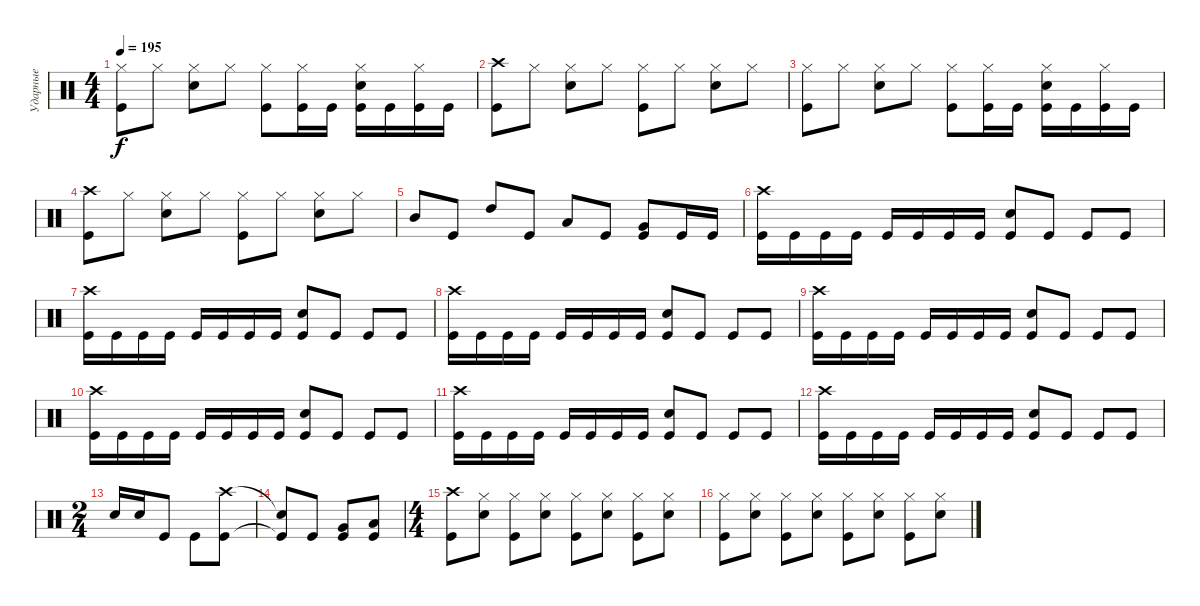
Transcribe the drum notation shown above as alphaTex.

\track ("Ударные" "Ударные") {instrument percussion}
\staff {score}
\articulation defaults
\ts (4 4)
\tempo 195
\clef neutral
\ks c
("Hi-Hat (closed)" "Kick (hit)").8{dy f} "Hi-Hat (closed)".8 ("Hi-Hat (closed)" "Electric Snare (hit)").8 "Hi-Hat (closed)".8 ("Hi-Hat (closed)" "Kick (hit)").8 ("Hi-Hat (closed)" "Kick (hit)").16 "Kick (hit)".16 ("Hi-Hat (closed)" "Electric Snare (hit)" "Kick (hit)").16 "Kick (hit)".16 ("Hi-Hat (closed)" "Kick (hit)").16 "Kick (hit)".16 |
("Crash high (hit)" "Kick (hit)").8 "Hi-Hat (closed)".8 ("Hi-Hat (closed)" "Electric Snare (hit)").8 "Hi-Hat (closed)".8 ("Hi-Hat (closed)" "Kick (hit)").8 "Hi-Hat (closed)".8 ("Hi-Hat (closed)" "Electric Snare (hit)").8 "Hi-Hat (closed)".8 |
("Hi-Hat (closed)" "Kick (hit)").8 "Hi-Hat (closed)".8 ("Hi-Hat (closed)" "Electric Snare (hit)").8 "Hi-Hat (closed)".8 ("Hi-Hat (closed)" "Kick (hit)").8 ("Hi-Hat (closed)" "Kick (hit)").16 "Kick (hit)".16 ("Hi-Hat (closed)" "Electric Snare (hit)" "Kick (hit)").16 "Kick (hit)".16 ("Hi-Hat (closed)" "Kick (hit)").16 "Kick (hit)".16 |
("Crash high (hit)" "Kick (hit)").8 "Hi-Hat (closed)".8 ("Hi-Hat (closed)" "Electric Snare (hit)").8 "Hi-Hat (closed)".8 ("Hi-Hat (closed)" "Kick (hit)").8 "Hi-Hat (closed)".8 ("Hi-Hat (closed)" "Electric Snare (hit)").8 "Hi-Hat (closed)".8 |
"Mid Tom (hit)".8 "Kick (hit)".8 "High Tom (hit)".8 "Kick (hit)".8 "Low Tom (hit)".8 "Kick (hit)".8 ("Very Low Tom (hit)" "Kick (hit)").8 "Kick (hit)".16 "Kick (hit)".16 |
("Crash high (hit)" "Kick (hit)").16 "Kick (hit)".16 "Kick (hit)".16 "Kick (hit)".16 "Kick (hit)".16 "Kick (hit)".16 "Kick (hit)".16 "Kick (hit)".16 ("Electric Snare (hit)" "Kick (hit)").8 "Kick (hit)".8 "Kick (hit)".8 "Kick (hit)".8 |
("Crash high (hit)" "Kick (hit)").16 "Kick (hit)".16 "Kick (hit)".16 "Kick (hit)".16 "Kick (hit)".16 "Kick (hit)".16 "Kick (hit)".16 "Kick (hit)".16 ("Electric Snare (hit)" "Kick (hit)").8 "Kick (hit)".8 "Kick (hit)".8 "Kick (hit)".8 |
("Crash high (hit)" "Kick (hit)").16 "Kick (hit)".16 "Kick (hit)".16 "Kick (hit)".16 "Kick (hit)".16 "Kick (hit)".16 "Kick (hit)".16 "Kick (hit)".16 ("Electric Snare (hit)" "Kick (hit)").8 "Kick (hit)".8 "Kick (hit)".8 "Kick (hit)".8 |
("Crash high (hit)" "Kick (hit)").16 "Kick (hit)".16 "Kick (hit)".16 "Kick (hit)".16 "Kick (hit)".16 "Kick (hit)".16 "Kick (hit)".16 "Kick (hit)".16 ("Electric Snare (hit)" "Kick (hit)").8 "Kick (hit)".8 "Kick (hit)".8 "Kick (hit)".8 |
("Crash high (hit)" "Kick (hit)").16 "Kick (hit)".16 "Kick (hit)".16 "Kick (hit)".16 "Kick (hit)".16 "Kick (hit)".16 "Kick (hit)".16 "Kick (hit)".16 ("Electric Snare (hit)" "Kick (hit)").8 "Kick (hit)".8 "Kick (hit)".8 "Kick (hit)".8 |
("Crash high (hit)" "Kick (hit)").16 "Kick (hit)".16 "Kick (hit)".16 "Kick (hit)".16 "Kick (hit)".16 "Kick (hit)".16 "Kick (hit)".16 "Kick (hit)".16 ("Electric Snare (hit)" "Kick (hit)").8 "Kick (hit)".8 "Kick (hit)".8 "Kick (hit)".8 |
("Crash high (hit)" "Kick (hit)").16 "Kick (hit)".16 "Kick (hit)".16 "Kick (hit)".16 "Kick (hit)".16 "Kick (hit)".16 "Kick (hit)".16 "Kick (hit)".16 ("Electric Snare (hit)" "Kick (hit)").8 "Kick (hit)".8 "Kick (hit)".8 "Kick (hit)".8 |
\ts (2 4)
"Electric Snare (hit)".16 "Electric Snare (hit)".16 "Kick (hit)".8 "Kick (hit)".8 ("Crash high (hit)" "Kick (hit)").8 |
("Snare (hit)"{t} "Kick (hit)"{t}).8 "Kick (hit)".8 ("Very Low Tom (hit)" "Kick (hit)").8 ("Low Tom (hit)" "Kick (hit)").8 |
\ts (4 4)
("Crash high (hit)" "Kick (hit)").8 ("Hi-Hat (closed)" "Electric Snare (hit)").8 ("Hi-Hat (closed)" "Kick (hit)").8 ("Hi-Hat (closed)" "Electric Snare (hit)").8 ("Hi-Hat (closed)" "Kick (hit)").8 ("Hi-Hat (closed)" "Electric Snare (hit)").8 ("Hi-Hat (closed)" "Kick (hit)").8 ("Hi-Hat (closed)" "Electric Snare (hit)").8 |
("Hi-Hat (closed)" "Kick (hit)").8 ("Hi-Hat (closed)" "Electric Snare (hit)").8 ("Hi-Hat (closed)" "Kick (hit)").8 ("Hi-Hat (closed)" "Electric Snare (hit)").8 ("Hi-Hat (closed)" "Kick (hit)").8 ("Hi-Hat (closed)" "Electric Snare (hit)").8 ("Hi-Hat (closed)" "Kick (hit)").8 ("Hi-Hat (closed)" "Electric Snare (hit)").8
